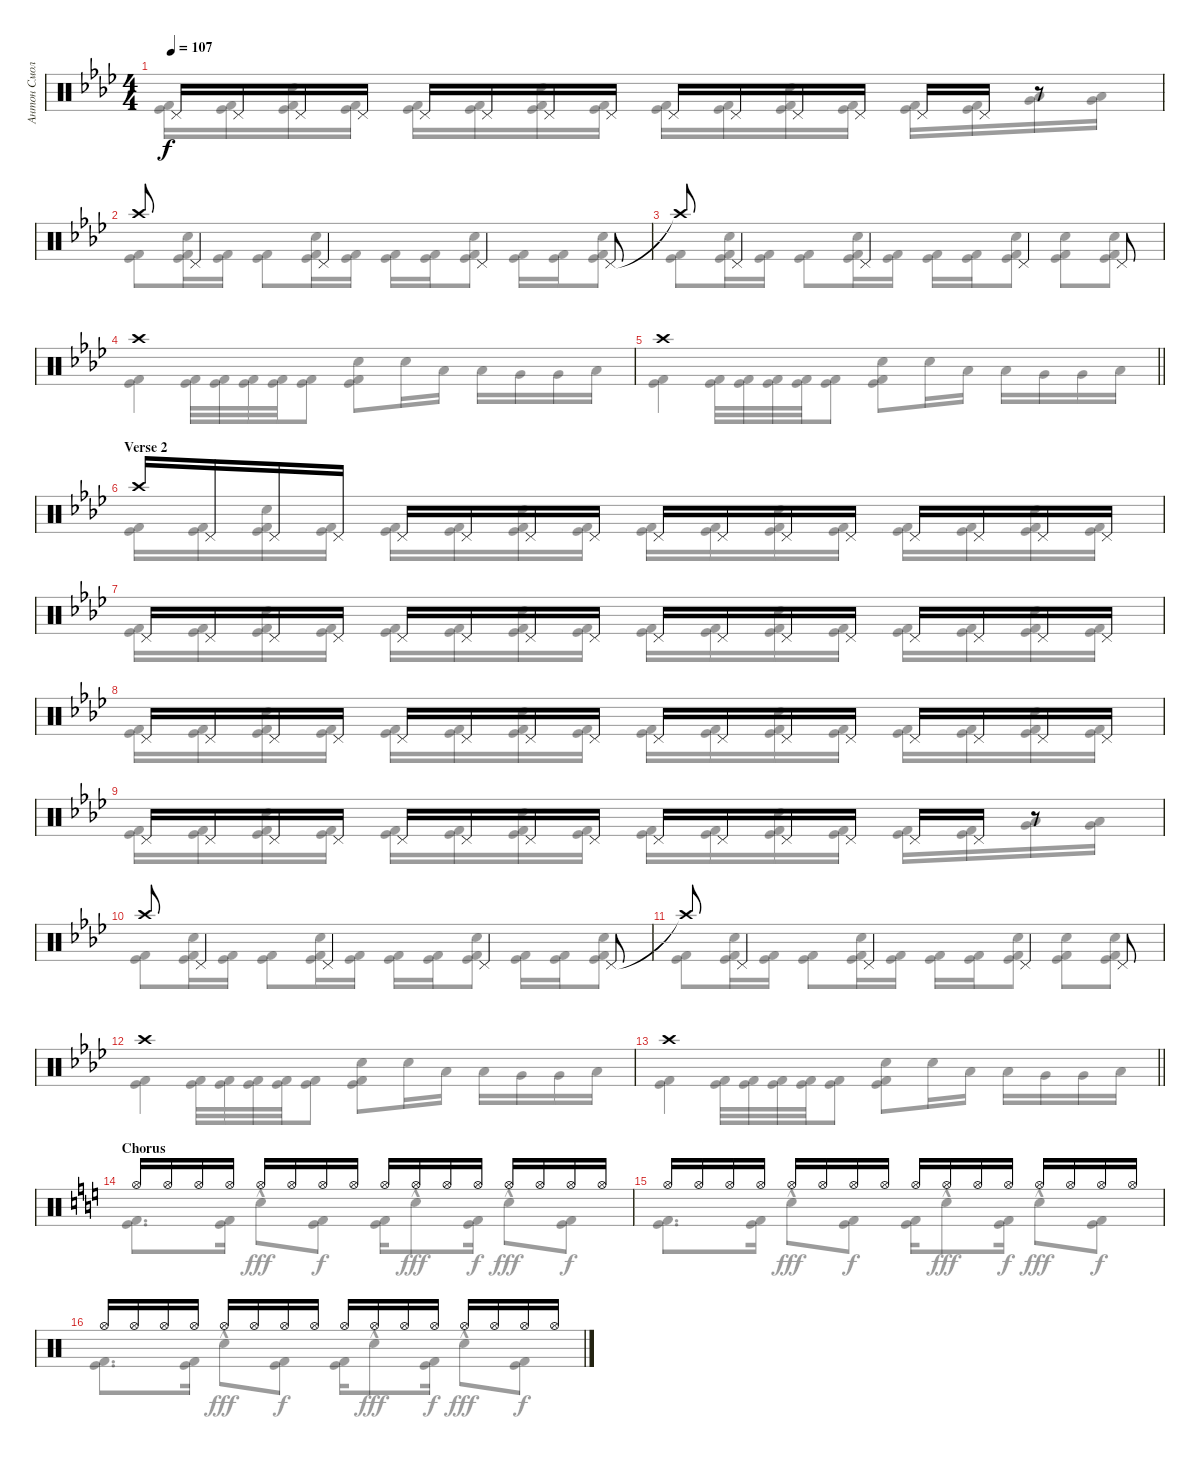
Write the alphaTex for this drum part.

\track ("Антон Смольянин" "Антон Смол") {instrument percussion}
\staff {score}
\articulation defaults
\voice
\ts (4 4)
\tempo 107
\clef neutral
\ks ab "Pedal Hi-Hat (hit)".16{dy f} "Pedal Hi-Hat (hit)".16 "Pedal Hi-Hat (hit)".16 "Pedal Hi-Hat (hit)".16 "Pedal Hi-Hat (hit)".16 "Pedal Hi-Hat (hit)".16 "Pedal Hi-Hat (hit)".16 "Pedal Hi-Hat (hit)".16 "Pedal Hi-Hat (hit)".16 "Pedal Hi-Hat (hit)".16 "Pedal Hi-Hat (hit)".16 "Pedal Hi-Hat (hit)".16 "Pedal Hi-Hat (hit)".16 "Pedal Hi-Hat (hit)".16
r.8 |
"Crash high (hit)".8 "Pedal Hi-Hat (hit)".4 "Pedal Hi-Hat (hit)".4 "Pedal Hi-Hat (hit)".4 "Pedal Hi-Hat (hit)".8 |
"Crash high (hit)"{t}.8 "Pedal Hi-Hat (hit)".4 "Pedal Hi-Hat (hit)".4 "Pedal Hi-Hat (hit)".4 "Pedal Hi-Hat (hit)".8 |
"Crash high (hit)".1 |
\barLineRight lightlight "Crash high (hit)".1
|
\section ("" "Verse 2")
"Crash high (hit)".16 "Pedal Hi-Hat (hit)".16 "Pedal Hi-Hat (hit)".16 "Pedal Hi-Hat (hit)".16 "Pedal Hi-Hat (hit)".16 "Pedal Hi-Hat (hit)".16 "Pedal Hi-Hat (hit)".16 "Pedal Hi-Hat (hit)".16 "Pedal Hi-Hat (hit)".16 "Pedal Hi-Hat (hit)".16 "Pedal Hi-Hat (hit)".16 "Pedal Hi-Hat (hit)".16 "Pedal Hi-Hat (hit)".16 "Pedal Hi-Hat (hit)".16 "Pedal Hi-Hat (hit)".16 "Pedal Hi-Hat (hit)".16 |
"Pedal Hi-Hat (hit)".16 "Pedal Hi-Hat (hit)".16 "Pedal Hi-Hat (hit)".16 "Pedal Hi-Hat (hit)".16 "Pedal Hi-Hat (hit)".16 "Pedal Hi-Hat (hit)".16 "Pedal Hi-Hat (hit)".16 "Pedal Hi-Hat (hit)".16 "Pedal Hi-Hat (hit)".16 "Pedal Hi-Hat (hit)".16 "Pedal Hi-Hat (hit)".16 "Pedal Hi-Hat (hit)".16 "Pedal Hi-Hat (hit)".16 "Pedal Hi-Hat (hit)".16 "Pedal Hi-Hat (hit)".16 "Pedal Hi-Hat (hit)".16 |
"Pedal Hi-Hat (hit)".16 "Pedal Hi-Hat (hit)".16 "Pedal Hi-Hat (hit)".16 "Pedal Hi-Hat (hit)".16 "Pedal Hi-Hat (hit)".16 "Pedal Hi-Hat (hit)".16 "Pedal Hi-Hat (hit)".16 "Pedal Hi-Hat (hit)".16 "Pedal Hi-Hat (hit)".16 "Pedal Hi-Hat (hit)".16 "Pedal Hi-Hat (hit)".16 "Pedal Hi-Hat (hit)".16 "Pedal Hi-Hat (hit)".16 "Pedal Hi-Hat (hit)".16 "Pedal Hi-Hat (hit)".16 "Pedal Hi-Hat (hit)".16 |
"Pedal Hi-Hat (hit)".16 "Pedal Hi-Hat (hit)".16 "Pedal Hi-Hat (hit)".16 "Pedal Hi-Hat (hit)".16 "Pedal Hi-Hat (hit)".16 "Pedal Hi-Hat (hit)".16 "Pedal Hi-Hat (hit)".16 "Pedal Hi-Hat (hit)".16 "Pedal Hi-Hat (hit)".16 "Pedal Hi-Hat (hit)".16 "Pedal Hi-Hat (hit)".16 "Pedal Hi-Hat (hit)".16 "Pedal Hi-Hat (hit)".16 "Pedal Hi-Hat (hit)".16 r.8 |
"Crash high (hit)".8 "Pedal Hi-Hat (hit)".4 "Pedal Hi-Hat (hit)".4 "Pedal Hi-Hat (hit)".4 "Pedal Hi-Hat (hit)".8 |
"Crash high (hit)"{t}.8 "Pedal Hi-Hat (hit)".4 "Pedal Hi-Hat (hit)".4 "Pedal Hi-Hat (hit)".4 "Pedal Hi-Hat (hit)".8 |
"Crash high (hit)".1 |
\barLineRight lightlight "Crash high (hit)".1
|
\section ("" "Chorus")
\ks c "Hi-Hat (open)".16 "Hi-Hat (open)".16 "Hi-Hat (open)".16 "Hi-Hat (open)".16 "Hi-Hat (open)".16 "Hi-Hat (open)".16 "Hi-Hat (open)".16 "Hi-Hat (open)".16 "Hi-Hat (open)".16 "Hi-Hat (open)".16 "Hi-Hat (open)".16 "Hi-Hat (open)".16 "Hi-Hat (open)".16 "Hi-Hat (open)".16 "Hi-Hat (open)".16 "Hi-Hat (open)".16
|
"Hi-Hat (open)".16 "Hi-Hat (open)".16 "Hi-Hat (open)".16 "Hi-Hat (open)".16 "Hi-Hat (open)".16 "Hi-Hat (open)".16 "Hi-Hat (open)".16 "Hi-Hat (open)".16 "Hi-Hat (open)".16 "Hi-Hat (open)".16 "Hi-Hat (open)".16 "Hi-Hat (open)".16 "Hi-Hat (open)".16 "Hi-Hat (open)".16 "Hi-Hat (open)".16 "Hi-Hat (open)".16 |
"Hi-Hat (open)".16 "Hi-Hat (open)".16 "Hi-Hat (open)".16 "Hi-Hat (open)".16 "Hi-Hat (open)".16 "Hi-Hat (open)".16 "Hi-Hat (open)".16 "Hi-Hat (open)".16 "Hi-Hat (open)".16 "Hi-Hat (open)".16 "Hi-Hat (open)".16 "Hi-Hat (open)".16 "Hi-Hat (open)".16 "Hi-Hat (open)".16 "Hi-Hat (open)".16 "Hi-Hat (open)".16
\voice
\clef neutral
\ottava regular
\simile none
\ks ab
("Kick (hit)" "Kick (hit) 2").16{dy f} ("Kick (hit)" "Kick (hit) 2").16 ("Kick (hit)" "Kick (hit) 2" "Snare (hit) 2").16 ("Kick (hit)" "Kick (hit) 2").16 ("Kick (hit)" "Kick (hit) 2").16 ("Kick (hit)" "Kick (hit) 2").16 ("Kick (hit)" "Kick (hit) 2" "Snare (hit) 2").16 ("Kick (hit)" "Kick (hit) 2").16 ("Kick (hit)" "Kick (hit) 2").16 ("Kick (hit)" "Kick (hit) 2").16 ("Kick (hit)" "Kick (hit) 2" "Snare (hit) 2").16 ("Kick (hit)" "Kick (hit) 2").16 ("Kick (hit)" "Kick (hit) 2").16 ("Kick (hit)" "Kick (hit) 2").16 ("Low Tom (hit)" "Very Low Tom (hit)").16 ("Low Tom (hit)" "Very Low Tom (hit)").16 |
("Kick (hit)" "Kick (hit) 2").8 ("Kick (hit)" "Kick (hit) 2" "Snare (hit) 2").16 ("Kick (hit)" "Kick (hit) 2").16 ("Kick (hit)" "Kick (hit) 2").8 ("Kick (hit)" "Kick (hit) 2" "Snare (hit) 2").16 ("Kick (hit)" "Kick (hit) 2").16 ("Kick (hit)" "Kick (hit) 2").16 ("Kick (hit)" "Kick (hit) 2").16 ("Kick (hit)" "Kick (hit) 2" "Snare (hit) 2").8 ("Kick (hit)" "Kick (hit) 2").16 ("Kick (hit)" "Kick (hit) 2").16 ("Kick (hit)" "Kick (hit) 2" "Snare (hit) 2").8 |
("Kick (hit)" "Kick (hit) 2").8 ("Kick (hit)" "Kick (hit) 2" "Snare (hit) 2").16 ("Kick (hit)" "Kick (hit) 2").16 ("Kick (hit)" "Kick (hit) 2").8 ("Kick (hit)" "Kick (hit) 2" "Snare (hit) 2").16 ("Kick (hit)" "Kick (hit) 2").16 ("Kick (hit)" "Kick (hit) 2").16 ("Kick (hit)" "Kick (hit) 2").16 ("Kick (hit)" "Kick (hit) 2" "Snare (hit) 2").8 ("Kick (hit)" "Kick (hit) 2" "Snare (hit) 2").8 ("Kick (hit)" "Kick (hit) 2" "Snare (hit) 2").8 |
("Kick (hit)" "Kick (hit) 2").4 ("Kick (hit)" "Kick (hit) 2").32 ("Kick (hit)" "Kick (hit) 2").32 ("Kick (hit)" "Kick (hit) 2").32 ("Kick (hit)" "Kick (hit) 2").32 ("Kick (hit)" "Kick (hit) 2").8 ("Kick (hit)" "Kick (hit) 2" "Snare (hit) 2").8 "Snare (hit) 2".16 "Low Tom (hit)".16 "Low Tom (hit)".16 "Very Low Tom (hit)".16 "Very Low Tom (hit)".16 "Low Tom (hit)".16 |
\barLineRight lightlight
("Kick (hit)" "Kick (hit) 2").4 ("Kick (hit)" "Kick (hit) 2").32 ("Kick (hit)" "Kick (hit) 2").32 ("Kick (hit)" "Kick (hit) 2").32 ("Kick (hit)" "Kick (hit) 2").32 ("Kick (hit)" "Kick (hit) 2").8 ("Kick (hit)" "Kick (hit) 2" "Snare (hit) 2").8 "Snare (hit) 2".16 "Low Tom (hit)".16 "Low Tom (hit)".16 "Very Low Tom (hit)".16 "Very Low Tom (hit)".16 "Low Tom (hit)".16 |
("Kick (hit)" "Kick (hit) 2").16 ("Kick (hit)" "Kick (hit) 2").16 ("Kick (hit)" "Kick (hit) 2" "Snare (hit) 2").16 ("Kick (hit)" "Kick (hit) 2").16 ("Kick (hit)" "Kick (hit) 2").16 ("Kick (hit)" "Kick (hit) 2").16 ("Kick (hit)" "Kick (hit) 2" "Snare (hit) 2").16 ("Kick (hit)" "Kick (hit) 2").16 ("Kick (hit)" "Kick (hit) 2").16 ("Kick (hit)" "Kick (hit) 2").16 ("Kick (hit)" "Kick (hit) 2" "Snare (hit) 2").16 ("Kick (hit)" "Kick (hit) 2").16 ("Kick (hit)" "Kick (hit) 2").16 ("Kick (hit)" "Kick (hit) 2").16 ("Kick (hit)" "Kick (hit) 2" "Snare (hit) 2").16 ("Kick (hit)" "Kick (hit) 2").16 |
("Kick (hit)" "Kick (hit) 2").16 ("Kick (hit)" "Kick (hit) 2").16 ("Kick (hit)" "Kick (hit) 2" "Snare (hit) 2").16 ("Kick (hit)" "Kick (hit) 2").16 ("Kick (hit)" "Kick (hit) 2").16 ("Kick (hit)" "Kick (hit) 2").16 ("Kick (hit)" "Kick (hit) 2" "Snare (hit) 2").16 ("Kick (hit)" "Kick (hit) 2").16 ("Kick (hit)" "Kick (hit) 2").16 ("Kick (hit)" "Kick (hit) 2").16 ("Kick (hit)" "Kick (hit) 2" "Snare (hit) 2").16 ("Kick (hit)" "Kick (hit) 2").16 ("Kick (hit)" "Kick (hit) 2").16 ("Kick (hit)" "Kick (hit) 2").16 ("Kick (hit)" "Kick (hit) 2" "Snare (hit) 2").16 ("Kick (hit)" "Kick (hit) 2").16 |
("Kick (hit)" "Kick (hit) 2").16 ("Kick (hit)" "Kick (hit) 2").16 ("Kick (hit)" "Kick (hit) 2" "Snare (hit) 2").16 ("Kick (hit)" "Kick (hit) 2").16 ("Kick (hit)" "Kick (hit) 2").16 ("Kick (hit)" "Kick (hit) 2").16 ("Kick (hit)" "Kick (hit) 2" "Snare (hit) 2").16 ("Kick (hit)" "Kick (hit) 2").16 ("Kick (hit)" "Kick (hit) 2").16 ("Kick (hit)" "Kick (hit) 2").16 ("Kick (hit)" "Kick (hit) 2" "Snare (hit) 2").16 ("Kick (hit)" "Kick (hit) 2").16 ("Kick (hit)" "Kick (hit) 2").16 ("Kick (hit)" "Kick (hit) 2").16 ("Kick (hit)" "Kick (hit) 2" "Snare (hit) 2").16 ("Kick (hit)" "Kick (hit) 2").16 |
("Kick (hit)" "Kick (hit) 2").16 ("Kick (hit)" "Kick (hit) 2").16 ("Kick (hit)" "Kick (hit) 2" "Snare (hit) 2").16 ("Kick (hit)" "Kick (hit) 2").16 ("Kick (hit)" "Kick (hit) 2").16 ("Kick (hit)" "Kick (hit) 2").16 ("Kick (hit)" "Kick (hit) 2" "Snare (hit) 2").16 ("Kick (hit)" "Kick (hit) 2").16 ("Kick (hit)" "Kick (hit) 2").16 ("Kick (hit)" "Kick (hit) 2").16 ("Kick (hit)" "Kick (hit) 2" "Snare (hit) 2").16 ("Kick (hit)" "Kick (hit) 2").16 ("Kick (hit)" "Kick (hit) 2").16 ("Kick (hit)" "Kick (hit) 2").16 ("Low Tom (hit)" "Very Low Tom (hit)").16 ("Low Tom (hit)" "Very Low Tom (hit)").16 |
("Kick (hit)" "Kick (hit) 2").8 ("Kick (hit)" "Kick (hit) 2" "Snare (hit) 2").16 ("Kick (hit)" "Kick (hit) 2").16 ("Kick (hit)" "Kick (hit) 2").8 ("Kick (hit)" "Kick (hit) 2" "Snare (hit) 2").16 ("Kick (hit)" "Kick (hit) 2").16 ("Kick (hit)" "Kick (hit) 2").16 ("Kick (hit)" "Kick (hit) 2").16 ("Kick (hit)" "Kick (hit) 2" "Snare (hit) 2").8 ("Kick (hit)" "Kick (hit) 2").16 ("Kick (hit)" "Kick (hit) 2").16 ("Kick (hit)" "Kick (hit) 2" "Snare (hit) 2").8 |
("Kick (hit)" "Kick (hit) 2").8 ("Kick (hit)" "Kick (hit) 2" "Snare (hit) 2").16 ("Kick (hit)" "Kick (hit) 2").16 ("Kick (hit)" "Kick (hit) 2").8 ("Kick (hit)" "Kick (hit) 2" "Snare (hit) 2").16 ("Kick (hit)" "Kick (hit) 2").16 ("Kick (hit)" "Kick (hit) 2").16 ("Kick (hit)" "Kick (hit) 2").16 ("Kick (hit)" "Kick (hit) 2" "Snare (hit) 2").8 ("Kick (hit)" "Kick (hit) 2" "Snare (hit) 2").8 ("Kick (hit)" "Kick (hit) 2" "Snare (hit) 2").8 |
("Kick (hit)" "Kick (hit) 2").4 ("Kick (hit)" "Kick (hit) 2").32 ("Kick (hit)" "Kick (hit) 2").32 ("Kick (hit)" "Kick (hit) 2").32 ("Kick (hit)" "Kick (hit) 2").32 ("Kick (hit)" "Kick (hit) 2").8 ("Kick (hit)" "Kick (hit) 2" "Snare (hit) 2").8 "Snare (hit) 2".16 "Low Tom (hit)".16 "Low Tom (hit)".16 "Very Low Tom (hit)".16 "Very Low Tom (hit)".16 "Low Tom (hit)".16 |
\barLineRight lightlight
("Kick (hit)" "Kick (hit) 2").4 ("Kick (hit)" "Kick (hit) 2").32 ("Kick (hit)" "Kick (hit) 2").32 ("Kick (hit)" "Kick (hit) 2").32 ("Kick (hit)" "Kick (hit) 2").32 ("Kick (hit)" "Kick (hit) 2").8 ("Kick (hit)" "Kick (hit) 2" "Snare (hit) 2").8 "Snare (hit) 2".16 "Low Tom (hit)".16 "Low Tom (hit)".16 "Very Low Tom (hit)".16 "Very Low Tom (hit)".16 "Low Tom (hit)".16 |
\ks c
("Kick (hit)" "Kick (hit) 2").8{d} ("Kick (hit)" "Kick (hit) 2").16 "Snare (hit) 2"{hac}.8{dy fff} ("Kick (hit)" "Kick (hit) 2").8{dy f} ("Kick (hit)" "Kick (hit) 2").16 "Snare (hit) 2"{hac}.8{dy fff} ("Kick (hit)" "Kick (hit) 2").16{dy f} "Snare (hit) 2"{hac}.8{dy fff} ("Kick (hit)" "Kick (hit) 2").8{dy f} |
("Kick (hit)" "Kick (hit) 2").8{d} ("Kick (hit)" "Kick (hit) 2").16 "Snare (hit) 2"{hac}.8{dy fff} ("Kick (hit)" "Kick (hit) 2").8{dy f} ("Kick (hit)" "Kick (hit) 2").16 "Snare (hit) 2"{hac}.8{dy fff} ("Kick (hit)" "Kick (hit) 2").16{dy f} "Snare (hit) 2"{hac}.8{dy fff} ("Kick (hit)" "Kick (hit) 2").8{dy f} |
("Kick (hit)" "Kick (hit) 2").8{d} ("Kick (hit)" "Kick (hit) 2").16 "Snare (hit) 2"{hac}.8{dy fff} ("Kick (hit)" "Kick (hit) 2").8{dy f} ("Kick (hit)" "Kick (hit) 2").16 "Snare (hit) 2"{hac}.8{dy fff} ("Kick (hit)" "Kick (hit) 2").16{dy f} "Snare (hit) 2"{hac}.8{dy fff} ("Kick (hit)" "Kick (hit) 2").8{dy f}
